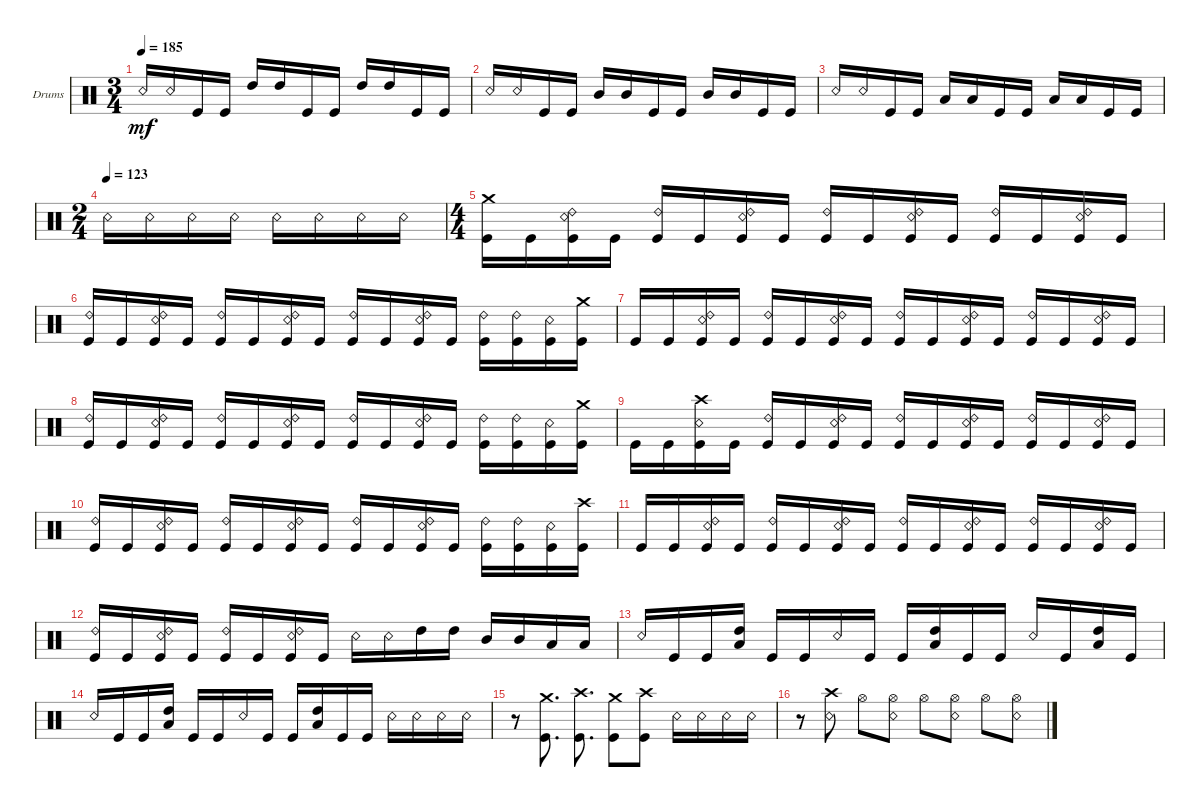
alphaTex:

\defaultSystemsLayout 4
\bracketExtendMode groupsimilarinstruments
\firstSystemTrackNameOrientation horizontal
\otherSystemsTrackNameOrientation horizontal
\track ("Drums" "Drums") {instrument percussion}
\staff {score}
\articulation defaults
\ts (3 4)
\tempo 185
\clef neutral
\scale
0.474178
\ks c "Snare (rim shot)".16{dy mf} "Snare (rim shot)".16 "Kick (hit)".16 "Kick (hit)".16 "High Tom (hit)".16 "High Tom (hit)".16 "Kick (hit)".16 "Kick (hit)".16 "High Tom (hit)".16 "High Tom (hit)".16 "Kick (hit)".16 "Kick (hit)".16
|
\scale
0.262911 "Snare (rim shot)".16 "Snare (rim shot)".16 "Kick (hit)".16 "Kick (hit)".16 "Mid Tom (hit)".16 "Mid Tom (hit)".16 "Kick (hit)".16 "Kick (hit)".16 "Mid Tom (hit)".16 "Mid Tom (hit)".16 "Kick (hit)".16 "Kick (hit)".16 |
\scale
0.262911 "Snare (rim shot)".16 "Snare (rim shot)".16 "Kick (hit)".16 "Kick (hit)".16 "Low Tom (hit)".16 "Low Tom (hit)".16 "Kick (hit)".16 "Kick (hit)".16 "Low Tom (hit)".16 "Low Tom (hit)".16 "Kick (hit)".16 "Kick (hit)".16 |
\ts (2 4)
\tempo 123
\scale
0.391473 "Snare (rim shot)".16 "Snare (rim shot)".16 "Snare (rim shot)".16 "Snare (rim shot)".16 "Snare (rim shot)".16 "Snare (rim shot)".16 "Snare (rim shot)".16 "Snare (rim shot)".16 |
\ts (4 4)
\scale
0.391473 ("Kick (hit)" "Crash medium (hit)").16 "Kick (hit)".16 ("Kick (hit)" "Ride (bell) 2" "Snare (rim shot)").16 "Kick (hit)".16 ("Kick (hit)" "Ride (bell) 2").16 "Kick (hit)".16 ("Kick (hit)" "Ride (bell) 2" "Snare (rim shot)").16 "Kick (hit)".16 ("Kick (hit)" "Ride (bell) 2").16 "Kick (hit)".16 ("Kick (hit)" "Ride (bell) 2" "Snare (rim shot)").16 "Kick (hit)".16 ("Kick (hit)" "Ride (bell) 2").16 "Kick (hit)".16 ("Kick (hit)" "Ride (bell) 2" "Snare (rim shot)").16 "Kick (hit)".16 |
\scale
0.217054 ("Kick (hit)" "Ride (bell) 2").16 "Kick (hit)".16 ("Kick (hit)" "Ride (bell) 2" "Snare (rim shot)").16 "Kick (hit)".16 ("Kick (hit)" "Ride (bell) 2").16 "Kick (hit)".16 ("Kick (hit)" "Ride (bell) 2" "Snare (rim shot)").16 "Kick (hit)".16 ("Kick (hit)" "Ride (bell) 2").16 "Kick (hit)".16 ("Kick (hit)" "Ride (bell) 2" "Snare (rim shot)").16 "Kick (hit)".16 ("Kick (hit)" "Ride (bell) 2").16 ("Kick (hit)" "Ride (bell) 2").16 ("Kick (hit)" "Snare (rim shot)").16 ("Kick (hit)" "Crash medium (hit)").16 |
\scale
0.333333 "Kick (hit)".16 "Kick (hit)".16 ("Kick (hit)" "Ride (bell) 2" "Snare (rim shot)").16 "Kick (hit)".16 ("Kick (hit)" "Ride (bell) 2").16 "Kick (hit)".16 ("Kick (hit)" "Ride (bell) 2" "Snare (rim shot)").16 "Kick (hit)".16 ("Kick (hit)" "Ride (bell) 2").16 "Kick (hit)".16 ("Kick (hit)" "Ride (bell) 2" "Snare (rim shot)").16 "Kick (hit)".16 ("Kick (hit)" "Ride (bell) 2").16 "Kick (hit)".16 ("Kick (hit)" "Ride (bell) 2" "Snare (rim shot)").16 "Kick (hit)".16 |
\scale
0.333333 ("Kick (hit)" "Ride (bell) 2").16 "Kick (hit)".16 ("Kick (hit)" "Snare (rim shot)" "Ride (bell) 2").16 "Kick (hit)".16 ("Kick (hit)" "Ride (bell) 2").16 "Kick (hit)".16 ("Kick (hit)" "Snare (rim shot)" "Ride (bell) 2").16 "Kick (hit)".16 ("Kick (hit)" "Ride (bell) 2").16 "Kick (hit)".16 ("Kick (hit)" "Snare (rim shot)" "Ride (bell) 2").16 "Kick (hit)".16 ("Kick (hit)" "Ride (bell) 2").16 ("Kick (hit)" "Ride (bell) 2").16 ("Kick (hit)" "Snare (rim shot)").16 ("Kick (hit)" "Crash medium (hit)").16 |
\scale
0.333333 "Kick (hit)".16 "Kick (hit)".16 ("Kick (hit)" "Crash high (hit)" "Snare (rim shot)").16 "Kick (hit)".16 ("Kick (hit)" "Ride (bell) 2").16 "Kick (hit)".16 ("Kick (hit)" "Ride (bell) 2" "Snare (rim shot)").16 "Kick (hit)".16 ("Kick (hit)" "Ride (bell) 2").16 "Kick (hit)".16 ("Kick (hit)" "Ride (bell) 2" "Snare (rim shot)").16 "Kick (hit)".16 ("Kick (hit)" "Ride (bell) 2").16 "Kick (hit)".16 ("Kick (hit)" "Ride (bell) 2" "Snare (rim shot)").16 "Kick (hit)".16 |
\scale
0.333333 ("Kick (hit)" "Ride (bell) 2").16 "Kick (hit)".16 ("Kick (hit)" "Snare (rim shot)" "Ride (bell) 2").16 "Kick (hit)".16 ("Kick (hit)" "Ride (bell) 2").16 "Kick (hit)".16 ("Kick (hit)" "Snare (rim shot)" "Ride (bell) 2").16 "Kick (hit)".16 ("Kick (hit)" "Ride (bell) 2").16 "Kick (hit)".16 ("Kick (hit)" "Snare (rim shot)" "Ride (bell) 2").16 "Kick (hit)".16 ("Kick (hit)" "Ride (bell) 2").16 ("Kick (hit)" "Ride (bell) 2").16 ("Kick (hit)" "Snare (rim shot)").16 ("Kick (hit)" "Crash high (hit)").16 |
\scale
0.333333 "Kick (hit)".16 "Kick (hit)".16 ("Kick (hit)" "Ride (bell) 2" "Snare (rim shot)").16 "Kick (hit)".16 ("Kick (hit)" "Ride (bell) 2").16 "Kick (hit)".16 ("Kick (hit)" "Ride (bell) 2" "Snare (rim shot)").16 "Kick (hit)".16 ("Kick (hit)" "Ride (bell) 2").16 "Kick (hit)".16 ("Kick (hit)" "Ride (bell) 2" "Snare (rim shot)").16 "Kick (hit)".16 ("Kick (hit)" "Ride (bell) 2").16 "Kick (hit)".16 ("Kick (hit)" "Ride (bell) 2" "Snare (rim shot)").16 "Kick (hit)".16 |
\scale
0.333333 ("Kick (hit)" "Ride (bell) 2").16 "Kick (hit)".16 ("Kick (hit)" "Snare (rim shot)" "Ride (bell) 2").16 "Kick (hit)".16 ("Kick (hit)" "Ride (bell) 2").16 "Kick (hit)".16 ("Kick (hit)" "Snare (rim shot)" "Ride (bell) 2").16 "Kick (hit)".16 "Snare (rim shot)".16 "Snare (rim shot)".16 "High Tom (hit)".16 "High Tom (hit)".16 "Mid Tom (hit)".16 "Mid Tom (hit)".16 "Low Tom (hit)".16 "Low Tom (hit)".16 |
\scale
0.333333 "Snare (rim shot)".16 "Kick (hit)".16 "Kick (hit)".16 ("Low Tom (hit)" "High Tom (hit)").16 "Kick (hit)".16 "Kick (hit)".16 "Snare (rim shot)".16 "Kick (hit)".16 "Kick (hit)".16 ("High Tom (hit)" "Low Tom (hit)").16 "Kick (hit)".16 "Kick (hit)".16 "Snare (rim shot)".16 "Kick (hit)".16 ("Low Tom (hit)" "High Tom (hit)").16 "Kick (hit)".16 |
\scale
0.333333 "Snare (rim shot)".16 "Kick (hit)".16 "Kick (hit)".16 ("Low Tom (hit)" "High Tom (hit)").16 "Kick (hit)".16 "Kick (hit)".16 "Snare (rim shot)".16 "Kick (hit)".16 "Kick (hit)".16 ("High Tom (hit)" "Low Tom (hit)").16 "Kick (hit)".16 "Kick (hit)".16 "Snare (rim shot)".16 "Snare (rim shot)".16 "Snare (rim shot)".16 "Snare (rim shot)".16 |
\scale
0.333333 r.8 ("Kick (hit)" "Crash medium (hit)").8{d} ("Kick (hit)" "Crash high (hit)").8{d} ("Kick (hit)" "Crash medium (hit)").8 ("Kick (hit)" "Crash high (hit)").8 "Snare (rim shot)".16 "Snare (rim shot)".16 "Snare (rim shot)".16 "Snare (rim shot)".16 |
\scale
0.333333 r.8 ("Snare (rim shot)" "Crash high (hit)").8 "Hi-Hat (open)".8 ("Hi-Hat (open)" "Snare (rim shot)").8 "Hi-Hat (open)".8 ("Hi-Hat (open)" "Snare (rim shot)").8 "Hi-Hat (open)".8 ("Hi-Hat (open)" "Snare (rim shot)").8
